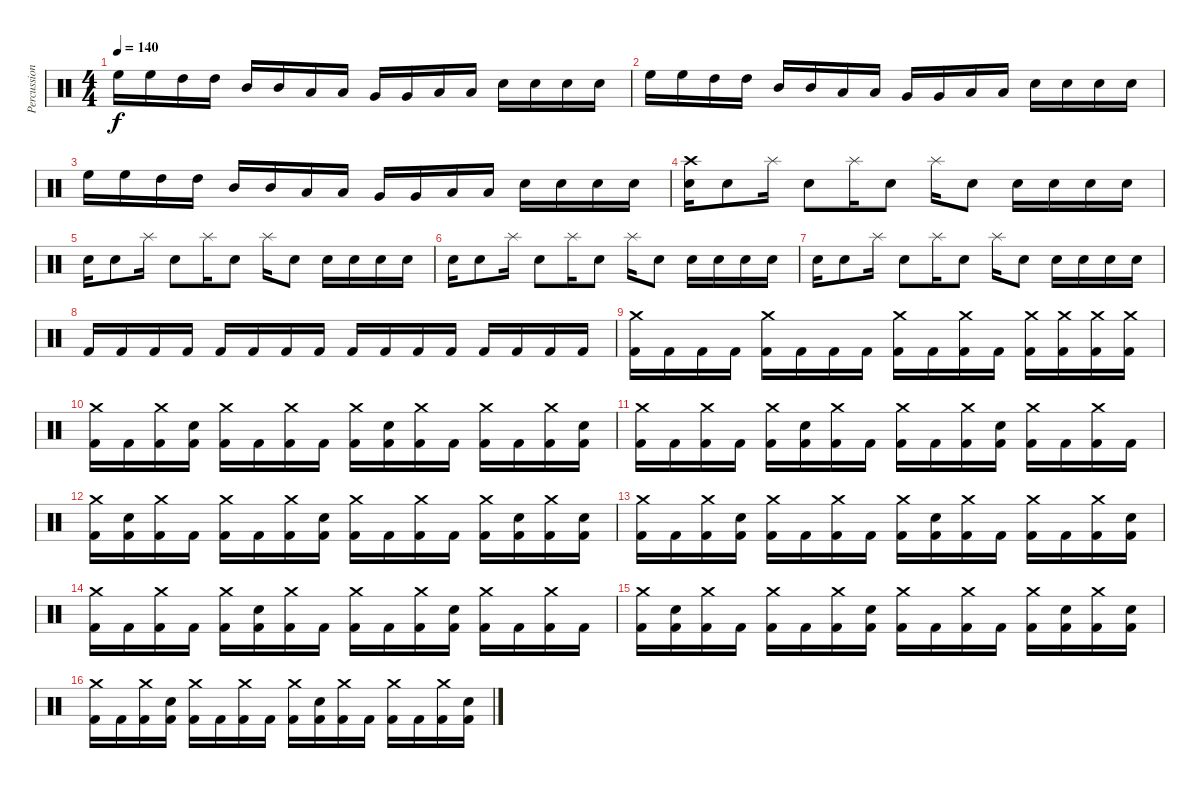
\track ("Percussion" "Percussion") {instrument percussion}
\staff {score}
\articulation defaults
\ts (4 4)
\tempo 140
\clef neutral
\ks c "High Floor Tom (hit)".16{dy f} "High Floor Tom (hit)".16 "High Tom (hit)".16 "High Tom (hit)".16 "Mid Tom (hit)".16 "Mid Tom (hit)".16 "Low Tom (hit)".16 "Low Tom (hit)".16 "Very Low Tom (hit)".16 "Very Low Tom (hit)".16 "Low Floor Tom (hit)".16 "Low Floor Tom (hit)".16 "Electric Snare (hit)".16 "Electric Snare (hit)".16 "Electric Snare (hit)".16 "Electric Snare (hit)".16
|
"High Floor Tom (hit)".16 "High Floor Tom (hit)".16 "High Tom (hit)".16 "High Tom (hit)".16 "Mid Tom (hit)".16 "Mid Tom (hit)".16 "Low Tom (hit)".16 "Low Tom (hit)".16 "Very Low Tom (hit)".16 "Very Low Tom (hit)".16 "Low Floor Tom (hit)".16 "Low Floor Tom (hit)".16 "Electric Snare (hit)".16 "Electric Snare (hit)".16 "Electric Snare (hit)".16 "Electric Snare (hit)".16 |
"High Floor Tom (hit)".16 "High Floor Tom (hit)".16 "High Tom (hit)".16 "High Tom (hit)".16 "Mid Tom (hit)".16 "Mid Tom (hit)".16 "Low Tom (hit)".16 "Low Tom (hit)".16 "Very Low Tom (hit)".16 "Very Low Tom (hit)".16 "Low Floor Tom (hit)".16 "Low Floor Tom (hit)".16 "Electric Snare (hit)".16 "Electric Snare (hit)".16 "Electric Snare (hit)".16 "Electric Snare (hit)".16 |
("Crash high (hit)" "Electric Snare (hit)").16 "Electric Snare (hit)".8 "Splash (hit)".16 "Electric Snare (hit)".8 "Splash (hit)".16 "Electric Snare (hit)".8 "Splash (hit)".16 "Electric Snare (hit)".8 "Electric Snare (hit)".16 "Electric Snare (hit)".16 "Electric Snare (hit)".16 "Electric Snare (hit)".16 |
"Electric Snare (hit)".16 "Electric Snare (hit)".8 "Splash (hit)".16 "Electric Snare (hit)".8 "Splash (hit)".16 "Electric Snare (hit)".8 "Splash (hit)".16 "Electric Snare (hit)".8 "Electric Snare (hit)".16 "Electric Snare (hit)".16 "Electric Snare (hit)".16 "Electric Snare (hit)".16 |
"Electric Snare (hit)".16 "Electric Snare (hit)".8 "Splash (hit)".16 "Electric Snare (hit)".8 "Splash (hit)".16 "Electric Snare (hit)".8 "Splash (hit)".16 "Electric Snare (hit)".8 "Electric Snare (hit)".16 "Electric Snare (hit)".16 "Electric Snare (hit)".16 "Electric Snare (hit)".16 |
"Electric Snare (hit)".16 "Electric Snare (hit)".8 "Splash (hit)".16 "Electric Snare (hit)".8 "Splash (hit)".16 "Electric Snare (hit)".8 "Splash (hit)".16 "Electric Snare (hit)".8 "Electric Snare (hit)".16 "Electric Snare (hit)".16 "Electric Snare (hit)".16 "Electric Snare (hit)".16 |
"Kick (hit) 2".16 "Kick (hit) 2".16 "Kick (hit) 2".16 "Kick (hit) 2".16 "Kick (hit) 2".16 "Kick (hit) 2".16 "Kick (hit) 2".16 "Kick (hit) 2".16 "Kick (hit) 2".16 "Kick (hit) 2".16 "Kick (hit) 2".16 "Kick (hit) 2".16 "Kick (hit) 2".16 "Kick (hit) 2".16 "Kick (hit) 2".16 "Kick (hit) 2".16 |
("Crash medium (hit)" "Kick (hit) 2").16 "Kick (hit) 2".16 "Kick (hit) 2".16 "Kick (hit) 2".16 ("Crash medium (hit)" "Kick (hit) 2").16 "Kick (hit) 2".16 "Kick (hit) 2".16 "Kick (hit) 2".16 ("Crash medium (hit)" "Kick (hit) 2").16 "Kick (hit) 2".16 ("Crash medium (hit)" "Kick (hit) 2").16 "Kick (hit) 2".16 ("Crash medium (hit)" "Kick (hit) 2").16 ("Crash medium (hit)" "Kick (hit) 2").16 ("Crash medium (hit)" "Kick (hit) 2").16 ("Crash medium (hit)" "Kick (hit) 2").16 |
("Crash medium (hit)" "Kick (hit) 2").16 "Kick (hit) 2".16 ("Crash medium (hit)" "Kick (hit) 2").16 ("Electric Snare (hit)" "Kick (hit) 2").16 ("Crash medium (hit)" "Kick (hit) 2").16 "Kick (hit) 2".16 ("Crash medium (hit)" "Kick (hit) 2").16 "Kick (hit) 2".16 ("Crash medium (hit)" "Kick (hit) 2").16 ("Electric Snare (hit)" "Kick (hit) 2").16 ("Crash medium (hit)" "Kick (hit) 2").16 "Kick (hit) 2".16 ("Crash medium (hit)" "Kick (hit) 2").16 "Kick (hit) 2".16 ("Crash medium (hit)" "Kick (hit) 2").16 ("Electric Snare (hit)" "Kick (hit) 2").16 |
("Crash medium (hit)" "Kick (hit) 2").16 "Kick (hit) 2".16 ("Crash medium (hit)" "Kick (hit) 2").16 "Kick (hit) 2".16 ("Crash medium (hit)" "Kick (hit) 2").16 ("Electric Snare (hit)" "Kick (hit) 2").16 ("Crash medium (hit)" "Kick (hit) 2").16 "Kick (hit) 2".16 ("Crash medium (hit)" "Kick (hit) 2").16 "Kick (hit) 2".16 ("Crash medium (hit)" "Kick (hit) 2").16 ("Electric Snare (hit)" "Kick (hit) 2").16 ("Crash medium (hit)" "Kick (hit) 2").16 "Kick (hit) 2".16 ("Crash medium (hit)" "Kick (hit) 2").16 "Kick (hit) 2".16 |
("Crash medium (hit)" "Kick (hit) 2").16 ("Electric Snare (hit)" "Kick (hit) 2").16 ("Crash medium (hit)" "Kick (hit) 2").16 "Kick (hit) 2".16 ("Crash medium (hit)" "Kick (hit) 2").16 "Kick (hit) 2".16 ("Crash medium (hit)" "Kick (hit) 2").16 ("Electric Snare (hit)" "Kick (hit) 2").16 ("Crash medium (hit)" "Kick (hit) 2").16 "Kick (hit) 2".16 ("Crash medium (hit)" "Kick (hit) 2").16 "Kick (hit) 2".16 ("Crash medium (hit)" "Kick (hit) 2").16 ("Electric Snare (hit)" "Kick (hit) 2").16 ("Crash medium (hit)" "Kick (hit) 2").16 ("Electric Snare (hit)" "Kick (hit) 2").16 |
("Crash medium (hit)" "Kick (hit) 2").16 "Kick (hit) 2".16 ("Crash medium (hit)" "Kick (hit) 2").16 ("Electric Snare (hit)" "Kick (hit) 2").16 ("Crash medium (hit)" "Kick (hit) 2").16 "Kick (hit) 2".16 ("Crash medium (hit)" "Kick (hit) 2").16 "Kick (hit) 2".16 ("Crash medium (hit)" "Kick (hit) 2").16 ("Electric Snare (hit)" "Kick (hit) 2").16 ("Crash medium (hit)" "Kick (hit) 2").16 "Kick (hit) 2".16 ("Crash medium (hit)" "Kick (hit) 2").16 "Kick (hit) 2".16 ("Crash medium (hit)" "Kick (hit) 2").16 ("Electric Snare (hit)" "Kick (hit) 2").16 |
("Crash medium (hit)" "Kick (hit) 2").16 "Kick (hit) 2".16 ("Crash medium (hit)" "Kick (hit) 2").16 "Kick (hit) 2".16 ("Crash medium (hit)" "Kick (hit) 2").16 ("Electric Snare (hit)" "Kick (hit) 2").16 ("Crash medium (hit)" "Kick (hit) 2").16 "Kick (hit) 2".16 ("Crash medium (hit)" "Kick (hit) 2").16 "Kick (hit) 2".16 ("Crash medium (hit)" "Kick (hit) 2").16 ("Electric Snare (hit)" "Kick (hit) 2").16 ("Crash medium (hit)" "Kick (hit) 2").16 "Kick (hit) 2".16 ("Crash medium (hit)" "Kick (hit) 2").16 "Kick (hit) 2".16 |
("Crash medium (hit)" "Kick (hit) 2").16 ("Electric Snare (hit)" "Kick (hit) 2").16 ("Crash medium (hit)" "Kick (hit) 2").16 "Kick (hit) 2".16 ("Crash medium (hit)" "Kick (hit) 2").16 "Kick (hit) 2".16 ("Crash medium (hit)" "Kick (hit) 2").16 ("Electric Snare (hit)" "Kick (hit) 2").16 ("Crash medium (hit)" "Kick (hit) 2").16 "Kick (hit) 2".16 ("Crash medium (hit)" "Kick (hit) 2").16 "Kick (hit) 2".16 ("Crash medium (hit)" "Kick (hit) 2").16 ("Electric Snare (hit)" "Kick (hit) 2").16 ("Crash medium (hit)" "Kick (hit) 2").16 ("Electric Snare (hit)" "Kick (hit) 2").16 |
("Crash medium (hit)" "Kick (hit) 2").16 "Kick (hit) 2".16 ("Crash medium (hit)" "Kick (hit) 2").16 ("Electric Snare (hit)" "Kick (hit) 2").16 ("Crash medium (hit)" "Kick (hit) 2").16 "Kick (hit) 2".16 ("Crash medium (hit)" "Kick (hit) 2").16 "Kick (hit) 2".16 ("Crash medium (hit)" "Kick (hit) 2").16 ("Electric Snare (hit)" "Kick (hit) 2").16 ("Crash medium (hit)" "Kick (hit) 2").16 "Kick (hit) 2".16 ("Crash medium (hit)" "Kick (hit) 2").16 "Kick (hit) 2".16 ("Crash medium (hit)" "Kick (hit) 2").16 ("Electric Snare (hit)" "Kick (hit) 2").16
